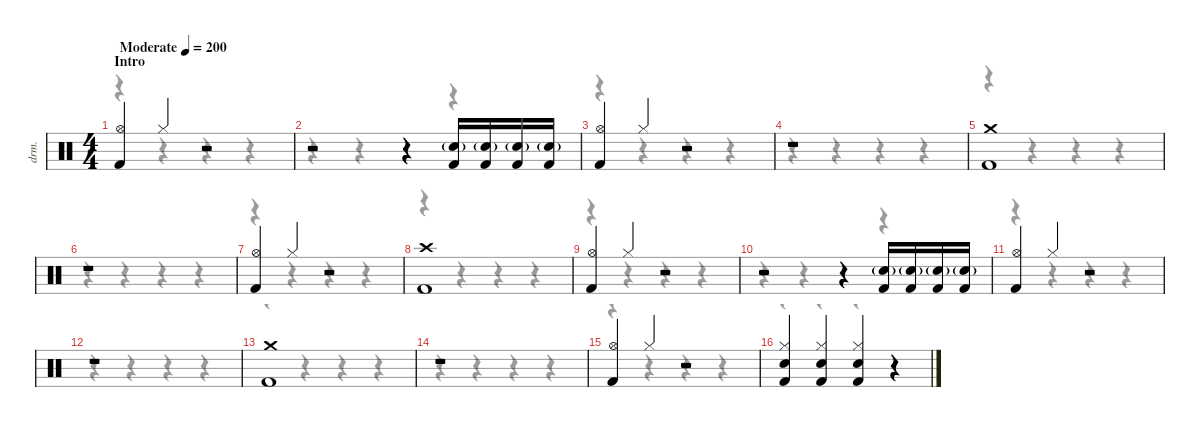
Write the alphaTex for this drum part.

\defaultSystemsLayout 4
\hideDynamics
\bracketExtendMode nobrackets
\otherSystemsTrackNameOrientation horizontal
\track ("David Mackintosh (Drums)" "drm.") {instrument percussion}
\staff {score}
\articulation defaults
\voice
\ts (4 4)
\beaming (8 2 2 2 2)
\section ("" "Intro")
\tempo (200 "Moderate")
\clef neutral
\ks c
("Kick (hit) 2" "Hi-Hat (open)").4{dy f} "Hi-Hat (closed)".4{dy ppp} r.2 |
r.2 r.4 ("Kick (hit) 2" "Snare (hit) 2"{g}).16{dy f} ("Kick (hit) 2" "Snare (hit) 2"{g}).16 ("Kick (hit) 2" "Snare (hit) 2"{g}).16 ("Kick (hit) 2" "Snare (hit) 2"{g}).16 |
("Kick (hit) 2" "Hi-Hat (open)").4 "Hi-Hat (closed)".4{dy ppp} r.2 |
r.1 |
("Kick (hit) 2" "Crash medium (hit)").1{dy f} |
r.1 |
("Kick (hit) 2" "Hi-Hat (open)").4 "Hi-Hat (closed)".4{dy ppp} r.2 |
("Kick (hit) 2" "Crash high (hit)").1{dy f} |
("Kick (hit) 2" "Hi-Hat (open)").4 "Hi-Hat (closed)".4{dy ppp} r.2 |
r.2 r.4 ("Kick (hit) 2" "Snare (hit) 2"{g}).16{dy f} ("Kick (hit) 2" "Snare (hit) 2"{g}).16 ("Kick (hit) 2" "Snare (hit) 2"{g}).16 ("Kick (hit) 2" "Snare (hit) 2"{g}).16 |
("Kick (hit) 2" "Hi-Hat (open)").4 "Hi-Hat (closed)".4{dy ppp} r.2 |
r.1 |
("Kick (hit) 2" "Crash medium (hit)").1{dy f} |
r.1 |
("Kick (hit) 2" "Hi-Hat (open)").4 "Hi-Hat (closed)".4{dy ppp} r.2 |
("Kick (hit) 2" "Snare (hit) 2" "Hi-Hat (closed)").4{dy f} ("Kick (hit) 2" "Snare (hit) 2" "Hi-Hat (closed)").4 ("Kick (hit) 2" "Snare (hit) 2" "Hi-Hat (closed)").4 r.4
\voice
\clef neutral
\ottava regular
\simile none
\ks c
r.4{dy mf} r.4 r.4 r.4 |
r.4 r.4 r.4 r.4 |
r.4 r.4 r.4 r.4 |
r.4 r.4 r.4 r.4 |
r.4 r.4 r.4 r.4 |
r.4 r.4 r.4 r.4 |
r.4 r.4 r.4 r.4 |
r.4 r.4 r.4 r.4 |
r.4 r.4 r.4 r.4 |
r.4 r.4 r.4 r.4 |
r.4 r.4 r.4 r.4 |
r.4 r.4 r.4 r.4 |
r.4 r.4 r.4 r.4 |
r.4 r.4 r.4 r.4 |
r.4 r.4 r.4 r.4 |
r.4 r.4 r.4 r.4
